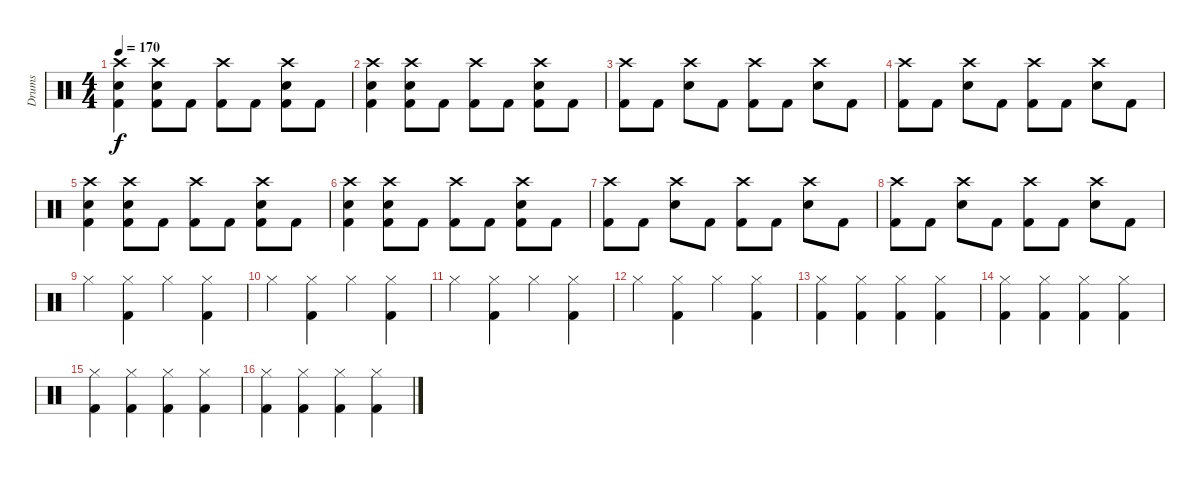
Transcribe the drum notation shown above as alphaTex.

\track ("Drums" "Drums") {instrument percussion}
\staff {score}
\articulation defaults
\ts (4 4)
\tempo 170
\clef neutral
\ks c
("Crash high (hit)" "Snare (hit) 2" "Kick (hit) 2").4{dy f} ("Crash high (hit)" "Snare (hit) 2" "Kick (hit) 2").8 "Kick (hit) 2".8 ("Crash high (hit)" "Kick (hit) 2").8 "Kick (hit) 2".8 ("Crash high (hit)" "Snare (hit) 2" "Kick (hit) 2").8 "Kick (hit) 2".8 |
("Crash high (hit)" "Snare (hit) 2" "Kick (hit) 2").4 ("Crash high (hit)" "Snare (hit) 2" "Kick (hit) 2").8 "Kick (hit) 2".8 ("Crash high (hit)" "Kick (hit) 2").8 "Kick (hit) 2".8 ("Crash high (hit)" "Snare (hit) 2" "Kick (hit) 2").8 "Kick (hit) 2".8 |
("Crash high (hit)" "Kick (hit) 2").8 "Kick (hit) 2".8 ("Crash high (hit)" "Snare (hit) 2").8 "Kick (hit) 2".8 ("Crash high (hit)" "Kick (hit) 2").8 "Kick (hit) 2".8 ("Crash high (hit)" "Snare (hit) 2").8 "Kick (hit) 2".8 |
("Crash high (hit)" "Kick (hit) 2").8 "Kick (hit) 2".8 ("Crash high (hit)" "Snare (hit) 2").8 "Kick (hit) 2".8 ("Crash high (hit)" "Kick (hit) 2").8 "Kick (hit) 2".8 ("Crash high (hit)" "Snare (hit) 2").8 "Kick (hit) 2".8 |
("Crash high (hit)" "Snare (hit) 2" "Kick (hit) 2").4 ("Crash high (hit)" "Snare (hit) 2" "Kick (hit) 2").8 "Kick (hit) 2".8 ("Crash high (hit)" "Kick (hit) 2").8 "Kick (hit) 2".8 ("Crash high (hit)" "Snare (hit) 2" "Kick (hit) 2").8 "Kick (hit) 2".8 |
("Crash high (hit)" "Snare (hit) 2" "Kick (hit) 2").4 ("Crash high (hit)" "Snare (hit) 2" "Kick (hit) 2").8 "Kick (hit) 2".8 ("Crash high (hit)" "Kick (hit) 2").8 "Kick (hit) 2".8 ("Crash high (hit)" "Snare (hit) 2" "Kick (hit) 2").8 "Kick (hit) 2".8 |
("Crash high (hit)" "Kick (hit) 2").8 "Kick (hit) 2".8 ("Crash high (hit)" "Snare (hit) 2").8 "Kick (hit) 2".8 ("Crash high (hit)" "Kick (hit) 2").8 "Kick (hit) 2".8 ("Crash high (hit)" "Snare (hit) 2").8 "Kick (hit) 2".8 |
("Crash high (hit)" "Kick (hit) 2").8 "Kick (hit) 2".8 ("Crash high (hit)" "Snare (hit) 2").8 "Kick (hit) 2".8 ("Crash high (hit)" "Kick (hit) 2").8 "Kick (hit) 2".8 ("Crash high (hit)" "Snare (hit) 2").8 "Kick (hit) 2".8 |
"Hi-Hat (closed)".4{volume 14} ("Hi-Hat (closed)" "Kick (hit) 2").4 "Hi-Hat (closed)".4 ("Hi-Hat (closed)" "Kick (hit) 2").4 |
"Hi-Hat (closed)".4 ("Hi-Hat (closed)" "Kick (hit) 2").4 "Hi-Hat (closed)".4 ("Hi-Hat (closed)" "Kick (hit) 2").4 |
"Hi-Hat (closed)".4 ("Hi-Hat (closed)" "Kick (hit) 2").4 "Hi-Hat (closed)".4 ("Hi-Hat (closed)" "Kick (hit) 2").4 |
"Hi-Hat (closed)".4 ("Hi-Hat (closed)" "Kick (hit) 2").4 "Hi-Hat (closed)".4 ("Hi-Hat (closed)" "Kick (hit) 2").4 |
("Hi-Hat (closed)" "Kick (hit) 2").4 ("Hi-Hat (closed)" "Kick (hit) 2").4 ("Hi-Hat (closed)" "Kick (hit) 2").4 ("Hi-Hat (closed)" "Kick (hit) 2").4 |
("Hi-Hat (closed)" "Kick (hit) 2").4 ("Hi-Hat (closed)" "Kick (hit) 2").4 ("Hi-Hat (closed)" "Kick (hit) 2").4 ("Hi-Hat (closed)" "Kick (hit) 2").4 |
("Hi-Hat (closed)" "Kick (hit) 2").4 ("Hi-Hat (closed)" "Kick (hit) 2").4 ("Hi-Hat (closed)" "Kick (hit) 2").4 ("Hi-Hat (closed)" "Kick (hit) 2").4 |
("Hi-Hat (closed)" "Kick (hit) 2").4 ("Hi-Hat (closed)" "Kick (hit) 2").4 ("Hi-Hat (closed)" "Kick (hit) 2").4 ("Hi-Hat (closed)" "Kick (hit) 2").4
